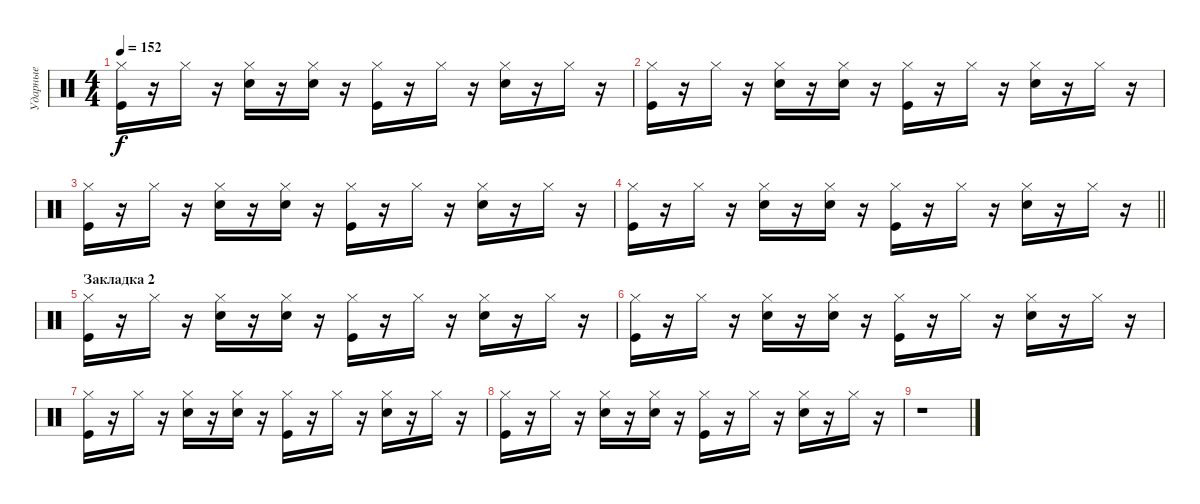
\track ("Ударные" "Ударные") {instrument percussion}
\staff {score}
\articulation defaults
\ts (4 4)
\tempo 152
\clef neutral
\ks c
("Kick (hit)" "Hi-Hat (closed)").16{dy f} r.16 "Hi-Hat (closed)".16 r.16 ("Electric Snare (hit)" "Hi-Hat (closed)").16 r.16 ("Electric Snare (hit)" "Hi-Hat (closed)").16 r.16 ("Kick (hit)" "Hi-Hat (closed)").16 r.16 "Hi-Hat (closed)".16 r.16 ("Hi-Hat (closed)" "Electric Snare (hit)").16 r.16 "Hi-Hat (closed)".16 r.16 |
("Kick (hit)" "Hi-Hat (closed)").16 r.16 "Hi-Hat (closed)".16 r.16 ("Electric Snare (hit)" "Hi-Hat (closed)").16 r.16 ("Electric Snare (hit)" "Hi-Hat (closed)").16 r.16 ("Kick (hit)" "Hi-Hat (closed)").16 r.16 "Hi-Hat (closed)".16 r.16 ("Electric Snare (hit)" "Hi-Hat (closed)").16 r.16 "Hi-Hat (closed)".16 r.16 |
("Kick (hit)" "Hi-Hat (closed)").16 r.16 "Hi-Hat (closed)".16 r.16 ("Electric Snare (hit)" "Hi-Hat (closed)").16 r.16 ("Electric Snare (hit)" "Hi-Hat (closed)").16 r.16 ("Kick (hit)" "Hi-Hat (closed)").16 r.16 "Hi-Hat (closed)".16 r.16 ("Electric Snare (hit)" "Hi-Hat (closed)").16 r.16 "Hi-Hat (closed)".16 r.16 |
\barLineRight lightlight
("Kick (hit)" "Hi-Hat (closed)").16 r.16 "Hi-Hat (closed)".16 r.16 ("Electric Snare (hit)" "Hi-Hat (closed)").16 r.16 ("Electric Snare (hit)" "Hi-Hat (closed)").16 r.16 ("Hi-Hat (closed)" "Kick (hit)").16 r.16 "Hi-Hat (closed)".16 r.16 ("Electric Snare (hit)" "Hi-Hat (closed)").16 r.16 "Hi-Hat (closed)".16 r.16 |
\section ("" "Закладка 2")
("Kick (hit)" "Hi-Hat (closed)").16 r.16 "Hi-Hat (closed)".16 r.16 ("Electric Snare (hit)" "Hi-Hat (closed)").16 r.16 ("Electric Snare (hit)" "Hi-Hat (closed)").16 r.16 ("Kick (hit)" "Hi-Hat (closed)").16 r.16 "Hi-Hat (closed)".16 r.16 ("Electric Snare (hit)" "Hi-Hat (closed)").16 r.16 "Hi-Hat (closed)".16 r.16 |
("Kick (hit)" "Hi-Hat (closed)").16 r.16 "Hi-Hat (closed)".16 r.16 ("Electric Snare (hit)" "Hi-Hat (closed)").16 r.16 ("Electric Snare (hit)" "Hi-Hat (closed)").16 r.16 ("Kick (hit)" "Hi-Hat (closed)").16 r.16 "Hi-Hat (closed)".16 r.16 ("Electric Snare (hit)" "Hi-Hat (closed)").16 r.16 "Hi-Hat (closed)".16 r.16 |
("Kick (hit)" "Hi-Hat (closed)").16 r.16 "Hi-Hat (closed)".16 r.16 ("Hi-Hat (closed)" "Electric Snare (hit)").16 r.16 ("Electric Snare (hit)" "Hi-Hat (closed)").16 r.16 ("Kick (hit)" "Hi-Hat (closed)").16 r.16 "Hi-Hat (closed)".16 r.16 ("Electric Snare (hit)" "Hi-Hat (closed)").16 r.16 "Hi-Hat (closed)".16 r.16 |
("Kick (hit)" "Hi-Hat (closed)").16 r.16 "Hi-Hat (closed)".16 r.16 ("Electric Snare (hit)" "Hi-Hat (closed)").16 r.16 ("Electric Snare (hit)" "Hi-Hat (closed)").16 r.16 ("Kick (hit)" "Hi-Hat (closed)").16 r.16 "Hi-Hat (closed)".16 r.16 ("Electric Snare (hit)" "Hi-Hat (closed)").16 r.16 "Hi-Hat (closed)".16 r.16 |
r.1
